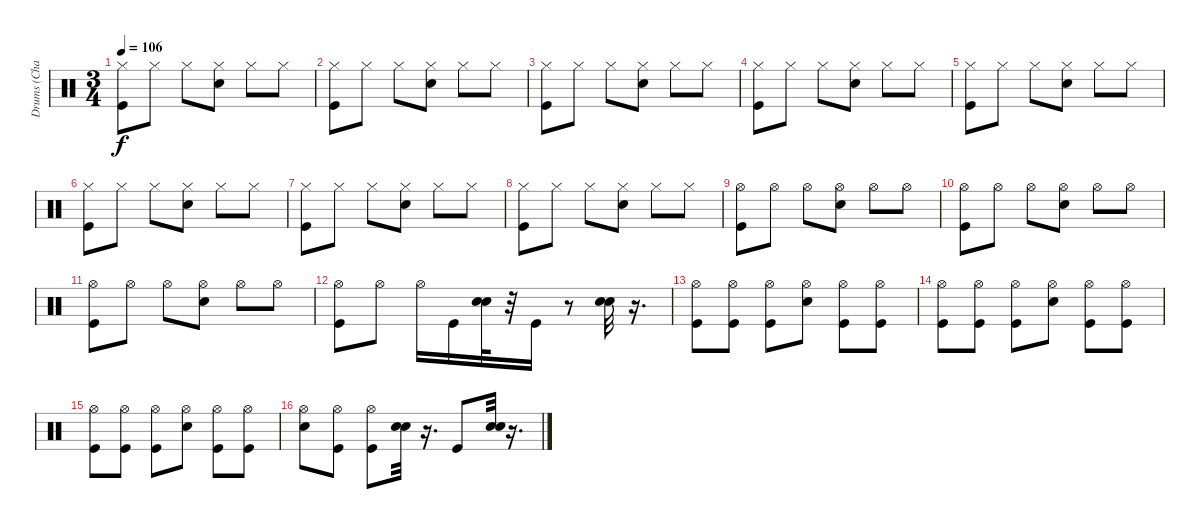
\track ("Drums (Chad?)" "Drums (Cha") {instrument percussion}
\staff {score}
\articulation defaults
\ts (3 4)
\tempo 106
\clef neutral
\ks c
("Hi-Hat (closed)" "Kick (hit)").8{dy f} "Hi-Hat (closed)".8 "Hi-Hat (closed)".8 ("Hi-Hat (closed)" "Snare (hit) 2").8 "Hi-Hat (closed)".8 "Hi-Hat (closed)".8 |
("Hi-Hat (closed)" "Kick (hit)").8 "Hi-Hat (closed)".8 "Hi-Hat (closed)".8 ("Hi-Hat (closed)" "Snare (hit) 2").8 "Hi-Hat (closed)".8 "Hi-Hat (closed)".8 |
("Hi-Hat (closed)" "Kick (hit)").8 "Hi-Hat (closed)".8 "Hi-Hat (closed)".8 ("Hi-Hat (closed)" "Snare (hit) 2").8 "Hi-Hat (closed)".8 "Hi-Hat (closed)".8 |
("Hi-Hat (closed)" "Kick (hit)").8 "Hi-Hat (closed)".8 "Hi-Hat (closed)".8 ("Hi-Hat (closed)" "Snare (hit) 2").8 "Hi-Hat (closed)".8 "Hi-Hat (closed)".8 |
("Hi-Hat (closed)" "Kick (hit)").8 "Hi-Hat (closed)".8 "Hi-Hat (closed)".8 ("Hi-Hat (closed)" "Snare (hit) 2").8 "Hi-Hat (closed)".8 "Hi-Hat (closed)".8 |
("Hi-Hat (closed)" "Kick (hit)").8 "Hi-Hat (closed)".8 "Hi-Hat (closed)".8 ("Hi-Hat (closed)" "Snare (hit) 2").8 "Hi-Hat (closed)".8 "Hi-Hat (closed)".8 |
("Hi-Hat (closed)" "Kick (hit)").8 "Hi-Hat (closed)".8 "Hi-Hat (closed)".8 ("Hi-Hat (closed)" "Snare (hit) 2").8 "Hi-Hat (closed)".8 "Hi-Hat (closed)".8 |
("Hi-Hat (closed)" "Kick (hit)").8 "Hi-Hat (closed)".8 "Hi-Hat (closed)".8 ("Hi-Hat (closed)" "Snare (hit) 2").8 "Hi-Hat (closed)".8 "Hi-Hat (closed)".8 |
("Hi-Hat (open)" "Kick (hit)").8 "Hi-Hat (open)".8 "Hi-Hat (open)".8 ("Hi-Hat (open)" "Snare (hit) 2").8 "Hi-Hat (open)".8 "Hi-Hat (open)".8 |
("Hi-Hat (open)" "Kick (hit)").8 "Hi-Hat (open)".8 "Hi-Hat (open)".8 ("Hi-Hat (open)" "Snare (hit) 2").8 "Hi-Hat (open)".8 "Hi-Hat (open)".8 |
("Hi-Hat (open)" "Kick (hit)").8 "Hi-Hat (open)".8 "Hi-Hat (open)".8 ("Hi-Hat (open)" "Snare (hit) 2").8 "Hi-Hat (open)".8 "Hi-Hat (open)".8 |
("Hi-Hat (open)" "Kick (hit)").8 "Hi-Hat (open)".8 "Hi-Hat (open)".16 "Kick (hit)".16 ("Snare (hit) 2" "Snare (hit) 2").32 r.32 "Kick (hit)".16 r.8 ("Snare (hit) 2" "Snare (hit) 2").32 r.16{d} |
("Hi-Hat (open)" "Kick (hit)").8 ("Hi-Hat (open)" "Kick (hit)").8 ("Hi-Hat (open)" "Kick (hit)").8 ("Hi-Hat (open)" "Snare (hit) 2").8 ("Hi-Hat (open)" "Kick (hit)").8 ("Hi-Hat (open)" "Kick (hit)").8 |
("Hi-Hat (open)" "Kick (hit)").8 ("Hi-Hat (open)" "Kick (hit)").8 ("Hi-Hat (open)" "Kick (hit)").8 ("Hi-Hat (open)" "Snare (hit) 2").8 ("Hi-Hat (open)" "Kick (hit)").8 ("Hi-Hat (open)" "Kick (hit)").8 |
("Hi-Hat (open)" "Kick (hit)").8 ("Hi-Hat (open)" "Kick (hit)").8 ("Hi-Hat (open)" "Kick (hit)").8 ("Hi-Hat (open)" "Snare (hit) 2").8 ("Hi-Hat (open)" "Kick (hit)").8 ("Hi-Hat (open)" "Kick (hit)").8 |
("Hi-Hat (open)" "Snare (hit) 2").8 ("Hi-Hat (open)" "Kick (hit)").8 ("Hi-Hat (open)" "Kick (hit)").8 ("Snare (hit) 2" "Snare (hit) 2").32 r.16{d} "Kick (hit)".8 ("Snare (hit) 2" "Snare (hit) 2").32 r.16{d}
